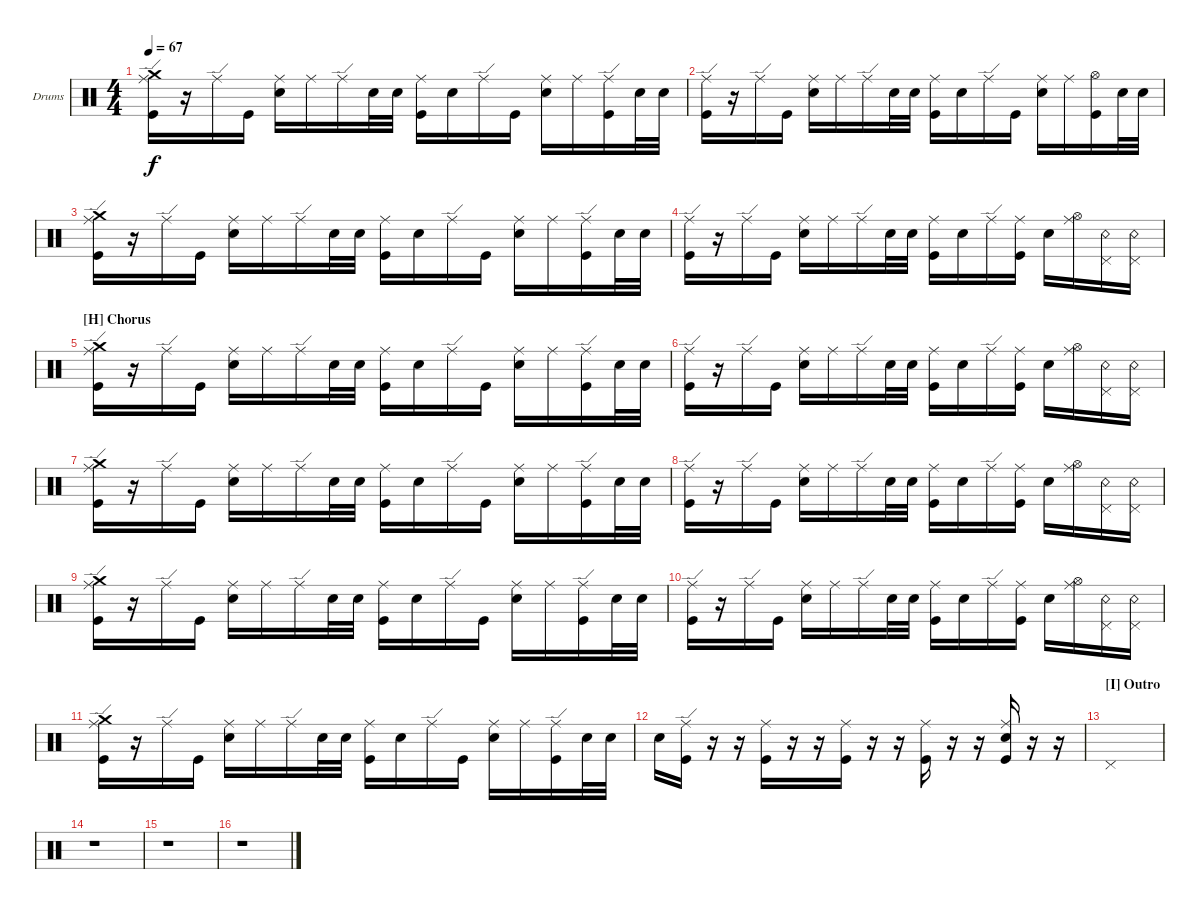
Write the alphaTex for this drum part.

\defaultSystemsLayout 4
\bracketExtendMode groupsimilarinstruments
\firstSystemTrackNameOrientation horizontal
\otherSystemsTrackNameOrientation horizontal
\track ("Freese" "Drums") {instrument percussion}
\staff {score}
\articulation defaults
\ts (4 4)
\tempo 67
\clef neutral
\scale
0.333333
\ks c
("Kick (hit)" "Crash medium (hit)" "Ride (edge)").16{dy f} r.16 "Ride (edge)".16 "Kick (hit)".16 ("Ride (middle)" "Snare (hit) 2").16 "Ride (middle)".16 "Ride (edge)".16 "Snare (hit) 2".32 "Snare (hit) 2".32 ("Kick (hit)" "Ride (middle)").16 "Snare (hit) 2".16 "Ride (edge)".16 "Kick (hit)".16 ("Ride (middle)" "Snare (hit) 2").16 "Ride (middle)".16 ("Ride (edge)" "Kick (hit)").16 "Snare (hit) 2".32 "Snare (hit) 2".32 |
\scale
0.333333 ("Kick (hit)" "Ride (edge)").16 r.16 "Ride (edge)".16 "Kick (hit)".16 ("Ride (middle)" "Snare (hit) 2").16 "Ride (middle)".16 "Ride (edge)".16 "Snare (hit) 2".32 "Snare (hit) 2".32 ("Kick (hit)" "Ride (middle)").16 "Snare (hit) 2".16 "Ride (edge)".16 "Kick (hit)".16 ("Ride (middle)" "Snare (hit) 2").16 "Ride (middle)".16 ("Kick (hit)" "Hi-Hat (open)").16 "Snare (hit) 2".32 "Snare (hit) 2".32 |
\scale
0.333333 ("Kick (hit)" "Crash medium (hit)" "Ride (edge)").16 r.16 "Ride (edge)".16 "Kick (hit)".16 ("Ride (middle)" "Snare (hit) 2").16 "Ride (middle)".16 "Ride (edge)".16 "Snare (hit) 2".32 "Snare (hit) 2".32 ("Kick (hit)" "Ride (middle)").16 "Snare (hit) 2".16 "Ride (edge)".16 "Kick (hit)".16 ("Ride (middle)" "Snare (hit) 2").16 "Ride (middle)".16 ("Ride (edge)" "Kick (hit)").16 "Snare (hit) 2".32 "Snare (hit) 2".32 |
\scale
0.333333 ("Kick (hit)" "Ride (edge)").16 r.16 "Ride (edge)".16 "Kick (hit)".16 ("Ride (middle)" "Snare (hit) 2").16 "Ride (middle)".16 "Ride (edge)".16 "Snare (hit) 2".32 "Snare (hit) 2".32 ("Kick (hit)" "Ride (middle)").16 "Snare (hit) 2".16 "Ride (edge)".16 ("Ride (middle)" "Kick (hit)").16 "Snare (hit) 2".16 ("Hi-Hat (open)" "Ride (middle)").16 ("Snare (rim shot)" "Pedal Hi-Hat (hit)").16 ("Snare (rim shot)" "Pedal Hi-Hat (hit)").16 |
\section ("H" "Chorus")
\scale
0.333333 ("Kick (hit)" "Crash medium (hit)" "Ride (edge)").16 r.16 "Ride (edge)".16 "Kick (hit)".16 ("Ride (middle)" "Snare (hit) 2").16 "Ride (middle)".16 "Ride (edge)".16 "Snare (hit) 2".32 "Snare (hit) 2".32 ("Kick (hit)" "Ride (middle)").16 "Snare (hit) 2".16 "Ride (edge)".16 "Kick (hit)".16 ("Ride (middle)" "Snare (hit) 2").16 "Ride (middle)".16 ("Ride (edge)" "Kick (hit)").16 "Snare (hit) 2".32 "Snare (hit) 2".32 |
\scale
0.333333 ("Kick (hit)" "Ride (edge)").16 r.16 "Ride (edge)".16 "Kick (hit)".16 ("Ride (middle)" "Snare (hit) 2").16 "Ride (middle)".16 "Ride (edge)".16 "Snare (hit) 2".32 "Snare (hit) 2".32 ("Kick (hit)" "Ride (middle)").16 "Snare (hit) 2".16 "Ride (edge)".16 ("Ride (middle)" "Kick (hit)").16 "Snare (hit) 2".16 ("Hi-Hat (open)" "Ride (middle)").16 ("Snare (rim shot)" "Pedal Hi-Hat (hit)").16 ("Snare (rim shot)" "Pedal Hi-Hat (hit)").16 |
\scale
0.333333 ("Kick (hit)" "Crash medium (hit)" "Ride (edge)").16 r.16 "Ride (edge)".16 "Kick (hit)".16 ("Ride (middle)" "Snare (hit) 2").16 "Ride (middle)".16 "Ride (edge)".16 "Snare (hit) 2".32 "Snare (hit) 2".32 ("Kick (hit)" "Ride (middle)").16 "Snare (hit) 2".16 "Ride (edge)".16 "Kick (hit)".16 ("Ride (middle)" "Snare (hit) 2").16 "Ride (middle)".16 ("Ride (edge)" "Kick (hit)").16 "Snare (hit) 2".32 "Snare (hit) 2".32 |
\scale
0.333333 ("Kick (hit)" "Ride (edge)").16 r.16 "Ride (edge)".16 "Kick (hit)".16 ("Ride (middle)" "Snare (hit) 2").16 "Ride (middle)".16 "Ride (edge)".16 "Snare (hit) 2".32 "Snare (hit) 2".32 ("Kick (hit)" "Ride (middle)").16 "Snare (hit) 2".16 "Ride (edge)".16 ("Ride (middle)" "Kick (hit)").16 "Snare (hit) 2".16 ("Hi-Hat (open)" "Ride (middle)").16 ("Snare (rim shot)" "Pedal Hi-Hat (hit)").16 ("Snare (rim shot)" "Pedal Hi-Hat (hit)").16 |
\scale
0.333333 ("Kick (hit)" "Crash medium (hit)" "Ride (edge)").16 r.16 "Ride (edge)".16 "Kick (hit)".16 ("Ride (middle)" "Snare (hit) 2").16 "Ride (middle)".16 "Ride (edge)".16 "Snare (hit) 2".32 "Snare (hit) 2".32 ("Kick (hit)" "Ride (middle)").16 "Snare (hit) 2".16 "Ride (edge)".16 "Kick (hit)".16 ("Ride (middle)" "Snare (hit) 2").16 "Ride (middle)".16 ("Ride (edge)" "Kick (hit)").16 "Snare (hit) 2".32 "Snare (hit) 2".32 |
\scale
0.333333 ("Kick (hit)" "Ride (edge)").16 r.16 "Ride (edge)".16 "Kick (hit)".16 ("Ride (middle)" "Snare (hit) 2").16 "Ride (middle)".16 "Ride (edge)".16 "Snare (hit) 2".32 "Snare (hit) 2".32 ("Kick (hit)" "Ride (middle)").16 "Snare (hit) 2".16 "Ride (edge)".16 ("Ride (middle)" "Kick (hit)").16 "Snare (hit) 2".16 ("Hi-Hat (open)" "Ride (middle)").16 ("Snare (rim shot)" "Pedal Hi-Hat (hit)").16 ("Snare (rim shot)" "Pedal Hi-Hat (hit)").16 |
\scale
0.333333 ("Kick (hit)" "Crash medium (hit)" "Ride (edge)").16 r.16 "Ride (edge)".16 "Kick (hit)".16 ("Ride (middle)" "Snare (hit) 2").16 "Ride (middle)".16 "Ride (edge)".16 "Snare (hit) 2".32 "Snare (hit) 2".32 ("Kick (hit)" "Ride (middle)").16 "Snare (hit) 2".16 "Ride (edge)".16 "Kick (hit)".16 ("Ride (middle)" "Snare (hit) 2").16 "Ride (middle)".16 ("Ride (edge)" "Kick (hit)").16 "Snare (hit) 2".32 "Snare (hit) 2".32 |
\scale
0.333333 "Snare (hit) 2".16 ("Kick (hit)" "Ride (edge)").16 r.16 r.16 ("Kick (hit)" "Ride (middle)").16 r.16 r.16 ("Kick (hit)" "Ride (middle)").16 r.16 r.16 ("Kick (hit)" "Ride (middle)").16 r.16 r.16 ("Kick (hit)" "Snare (hit) 2" "Ride (middle)").16 r.16 r.16 |
\section ("I" "Outro")
\scale
0.333333 "Pedal Hi-Hat (hit)".1 |
\scale
0.333333 r.1 |
\scale
0.333333 r.1 |
r.1
